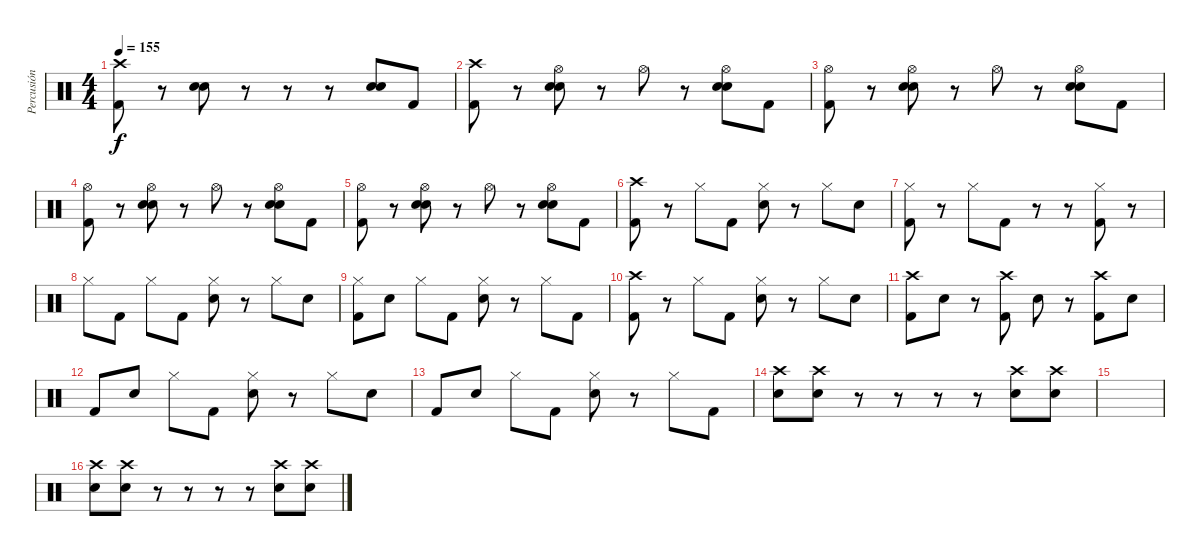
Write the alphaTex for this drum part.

\track ("Percusión" "Percusión") {instrument percussion}
\staff {score}
\articulation defaults
\ts (4 4)
\tempo 155
\clef neutral
\ks c
("Crash high (hit)" "Kick (hit) 2").8{dy f} r.8 ("Electric Snare (hit)" "Electric Snare (hit)").8 r.8 r.8 r.8 ("Electric Snare (hit)" "Electric Snare (hit)").8 "Kick (hit) 2".8 |
("Crash high (hit)" "Kick (hit) 2").8 r.8 ("Hi-Hat (open)" "Electric Snare (hit)" "Electric Snare (hit)").8 r.8 "Hi-Hat (open)".8 r.8 ("Hi-Hat (open)" "Electric Snare (hit)" "Electric Snare (hit)").8 "Kick (hit) 2".8 |
("Hi-Hat (open)" "Kick (hit) 2").8 r.8 ("Hi-Hat (open)" "Electric Snare (hit)" "Electric Snare (hit)").8 r.8 "Hi-Hat (open)".8 r.8 ("Hi-Hat (open)" "Electric Snare (hit)" "Electric Snare (hit)").8 "Kick (hit) 2".8 |
("Hi-Hat (open)" "Kick (hit) 2").8 r.8 ("Hi-Hat (open)" "Electric Snare (hit)" "Electric Snare (hit)").8 r.8 "Hi-Hat (open)".8 r.8 ("Hi-Hat (open)" "Electric Snare (hit)" "Electric Snare (hit)").8 "Kick (hit) 2".8 |
("Hi-Hat (open)" "Kick (hit) 2").8 r.8 ("Hi-Hat (open)" "Electric Snare (hit)" "Electric Snare (hit)").8 r.8 "Hi-Hat (open)".8 r.8 ("Hi-Hat (open)" "Electric Snare (hit)" "Electric Snare (hit)").8 "Kick (hit) 2".8 |
("Crash high (hit)" "Kick (hit) 2").8 r.8 "Hi-Hat (closed)".8 "Kick (hit) 2".8 ("Hi-Hat (closed)" "Electric Snare (hit)").8 r.8 "Hi-Hat (closed)".8 "Electric Snare (hit)".8 |
("Hi-Hat (closed)" "Kick (hit) 2").8 r.8 "Hi-Hat (closed)".8 "Kick (hit) 2".8 r.8 r.8 ("Hi-Hat (closed)" "Kick (hit) 2").8 r.8 |
"Hi-Hat (closed)".8 "Kick (hit) 2".8 "Hi-Hat (closed)".8 "Kick (hit) 2".8 ("Hi-Hat (closed)" "Electric Snare (hit)").8 r.8 "Hi-Hat (closed)".8 "Electric Snare (hit)".8 |
("Hi-Hat (closed)" "Kick (hit) 2").8 "Electric Snare (hit)".8 "Hi-Hat (closed)".8 "Kick (hit) 2".8 ("Hi-Hat (closed)" "Electric Snare (hit)").8 r.8 "Hi-Hat (closed)".8 "Kick (hit) 2".8 |
("Crash high (hit)" "Kick (hit) 2").8 r.8 "Hi-Hat (closed)".8 "Kick (hit) 2".8 ("Hi-Hat (closed)" "Electric Snare (hit)").8 r.8 "Hi-Hat (closed)".8 "Electric Snare (hit)".8 |
("Crash high (hit)" "Kick (hit) 2").8 "Electric Snare (hit)".8 r.8 ("Crash high (hit)" "Kick (hit) 2").8 "Electric Snare (hit)".8 r.8 ("Crash high (hit)" "Kick (hit) 2").8 "Electric Snare (hit)".8 |
"Kick (hit) 2".8 "Electric Snare (hit)".8 "Hi-Hat (closed)".8 "Kick (hit) 2".8 ("Hi-Hat (closed)" "Electric Snare (hit)").8 r.8 "Hi-Hat (closed)".8 "Electric Snare (hit)".8 |
"Kick (hit) 2".8 "Electric Snare (hit)".8 "Hi-Hat (closed)".8 "Kick (hit) 2".8 ("Hi-Hat (closed)" "Electric Snare (hit)").8 r.8 "Hi-Hat (closed)".8 "Kick (hit) 2".8 |
("Crash high (hit)" "Electric Snare (hit)").8 ("Crash high (hit)" "Electric Snare (hit)").8 r.8 r.8 r.8 r.8 ("Crash high (hit)" "Electric Snare (hit)").8 ("Crash high (hit)" "Electric Snare (hit)").8 |
|
("Crash high (hit)" "Electric Snare (hit)").8 ("Crash high (hit)" "Electric Snare (hit)").8 r.8 r.8 r.8 r.8 ("Crash high (hit)" "Electric Snare (hit)").8 ("Crash high (hit)" "Electric Snare (hit)").8
